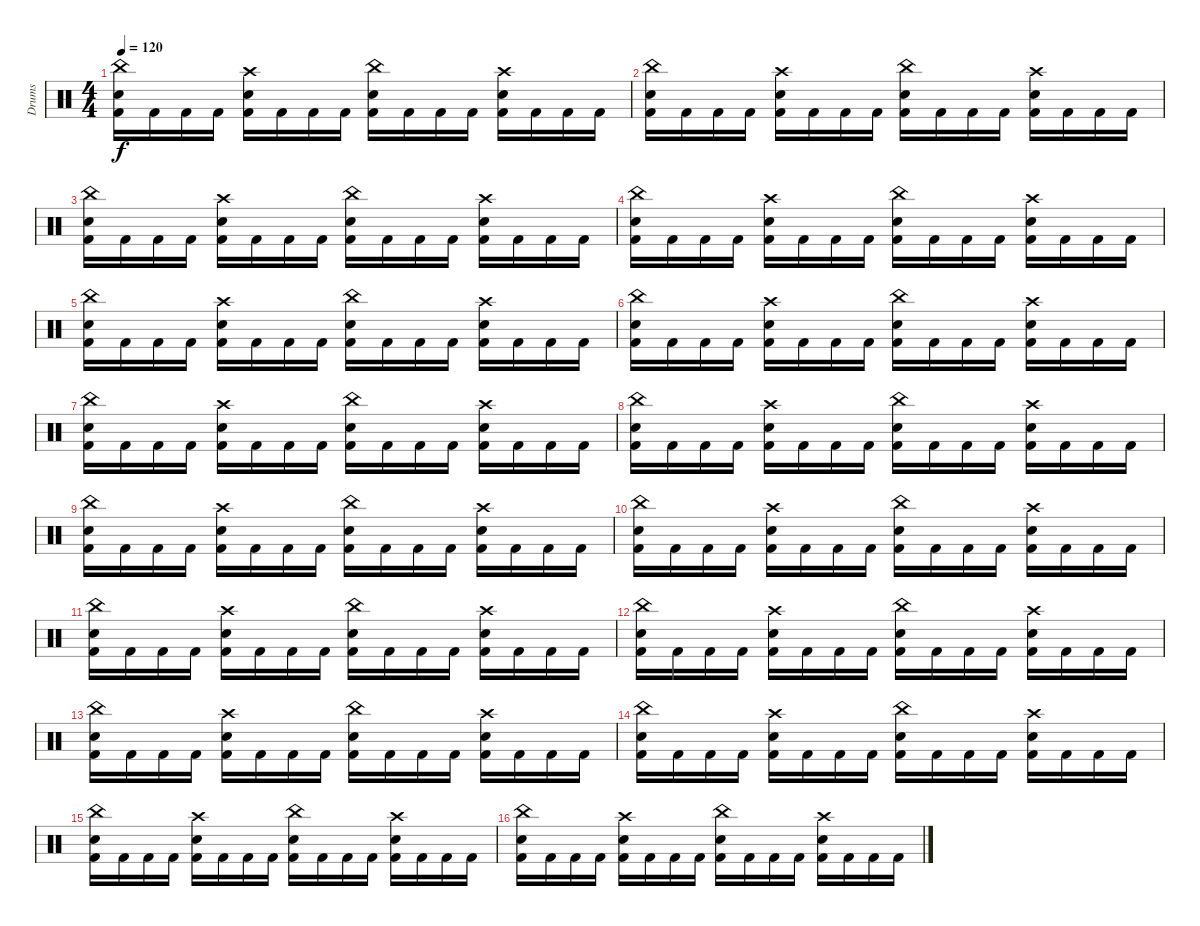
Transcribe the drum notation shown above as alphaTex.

\track ("Drums" "Drums") {instrument percussion}
\staff {score}
\articulation defaults
\ts (4 4)
\tempo 120
\clef neutral
\ks c
("China (hit)" "Electric Snare (hit)" "Kick (hit) 2").16{dy f} "Kick (hit) 2".16 "Kick (hit) 2".16 "Kick (hit) 2".16 ("Crash high (hit)" "Electric Snare (hit)" "Kick (hit) 2").16 "Kick (hit) 2".16 "Kick (hit) 2".16 "Kick (hit) 2".16 ("China (hit)" "Electric Snare (hit)" "Kick (hit) 2").16 "Kick (hit) 2".16 "Kick (hit) 2".16 "Kick (hit) 2".16 ("Crash high (hit)" "Electric Snare (hit)" "Kick (hit) 2").16 "Kick (hit) 2".16 "Kick (hit) 2".16 "Kick (hit) 2".16 |
("China (hit)" "Electric Snare (hit)" "Kick (hit) 2").16 "Kick (hit) 2".16 "Kick (hit) 2".16 "Kick (hit) 2".16 ("Crash high (hit)" "Electric Snare (hit)" "Kick (hit) 2").16 "Kick (hit) 2".16 "Kick (hit) 2".16 "Kick (hit) 2".16 ("China (hit)" "Electric Snare (hit)" "Kick (hit) 2").16 "Kick (hit) 2".16 "Kick (hit) 2".16 "Kick (hit) 2".16 ("Crash high (hit)" "Electric Snare (hit)" "Kick (hit) 2").16 "Kick (hit) 2".16 "Kick (hit) 2".16 "Kick (hit) 2".16 |
("China (hit)" "Electric Snare (hit)" "Kick (hit) 2").16 "Kick (hit) 2".16 "Kick (hit) 2".16 "Kick (hit) 2".16 ("Crash high (hit)" "Electric Snare (hit)" "Kick (hit) 2").16 "Kick (hit) 2".16 "Kick (hit) 2".16 "Kick (hit) 2".16 ("China (hit)" "Electric Snare (hit)" "Kick (hit) 2").16 "Kick (hit) 2".16 "Kick (hit) 2".16 "Kick (hit) 2".16 ("Crash high (hit)" "Electric Snare (hit)" "Kick (hit) 2").16 "Kick (hit) 2".16 "Kick (hit) 2".16 "Kick (hit) 2".16 |
("China (hit)" "Electric Snare (hit)" "Kick (hit) 2").16 "Kick (hit) 2".16 "Kick (hit) 2".16 "Kick (hit) 2".16 ("Crash high (hit)" "Electric Snare (hit)" "Kick (hit) 2").16 "Kick (hit) 2".16 "Kick (hit) 2".16 "Kick (hit) 2".16 ("China (hit)" "Electric Snare (hit)" "Kick (hit) 2").16 "Kick (hit) 2".16 "Kick (hit) 2".16 "Kick (hit) 2".16 ("Crash high (hit)" "Electric Snare (hit)" "Kick (hit) 2").16 "Kick (hit) 2".16 "Kick (hit) 2".16 "Kick (hit) 2".16 |
("China (hit)" "Electric Snare (hit)" "Kick (hit) 2").16 "Kick (hit) 2".16 "Kick (hit) 2".16 "Kick (hit) 2".16 ("Crash high (hit)" "Electric Snare (hit)" "Kick (hit) 2").16 "Kick (hit) 2".16 "Kick (hit) 2".16 "Kick (hit) 2".16 ("China (hit)" "Electric Snare (hit)" "Kick (hit) 2").16 "Kick (hit) 2".16 "Kick (hit) 2".16 "Kick (hit) 2".16 ("Crash high (hit)" "Electric Snare (hit)" "Kick (hit) 2").16 "Kick (hit) 2".16 "Kick (hit) 2".16 "Kick (hit) 2".16 |
("China (hit)" "Electric Snare (hit)" "Kick (hit) 2").16 "Kick (hit) 2".16 "Kick (hit) 2".16 "Kick (hit) 2".16 ("Crash high (hit)" "Electric Snare (hit)" "Kick (hit) 2").16 "Kick (hit) 2".16 "Kick (hit) 2".16 "Kick (hit) 2".16 ("China (hit)" "Electric Snare (hit)" "Kick (hit) 2").16 "Kick (hit) 2".16 "Kick (hit) 2".16 "Kick (hit) 2".16 ("Crash high (hit)" "Electric Snare (hit)" "Kick (hit) 2").16 "Kick (hit) 2".16 "Kick (hit) 2".16 "Kick (hit) 2".16 |
("China (hit)" "Electric Snare (hit)" "Kick (hit) 2").16 "Kick (hit) 2".16 "Kick (hit) 2".16 "Kick (hit) 2".16 ("Crash high (hit)" "Electric Snare (hit)" "Kick (hit) 2").16 "Kick (hit) 2".16 "Kick (hit) 2".16 "Kick (hit) 2".16 ("China (hit)" "Electric Snare (hit)" "Kick (hit) 2").16 "Kick (hit) 2".16 "Kick (hit) 2".16 "Kick (hit) 2".16 ("Crash high (hit)" "Electric Snare (hit)" "Kick (hit) 2").16 "Kick (hit) 2".16 "Kick (hit) 2".16 "Kick (hit) 2".16 |
("China (hit)" "Electric Snare (hit)" "Kick (hit) 2").16 "Kick (hit) 2".16 "Kick (hit) 2".16 "Kick (hit) 2".16 ("Crash high (hit)" "Electric Snare (hit)" "Kick (hit) 2").16 "Kick (hit) 2".16 "Kick (hit) 2".16 "Kick (hit) 2".16 ("China (hit)" "Electric Snare (hit)" "Kick (hit) 2").16 "Kick (hit) 2".16 "Kick (hit) 2".16 "Kick (hit) 2".16 ("Crash high (hit)" "Electric Snare (hit)" "Kick (hit) 2").16 "Kick (hit) 2".16 "Kick (hit) 2".16 "Kick (hit) 2".16 |
("China (hit)" "Electric Snare (hit)" "Kick (hit) 2").16 "Kick (hit) 2".16 "Kick (hit) 2".16 "Kick (hit) 2".16 ("Crash high (hit)" "Electric Snare (hit)" "Kick (hit) 2").16 "Kick (hit) 2".16 "Kick (hit) 2".16 "Kick (hit) 2".16 ("China (hit)" "Electric Snare (hit)" "Kick (hit) 2").16 "Kick (hit) 2".16 "Kick (hit) 2".16 "Kick (hit) 2".16 ("Crash high (hit)" "Electric Snare (hit)" "Kick (hit) 2").16 "Kick (hit) 2".16 "Kick (hit) 2".16 "Kick (hit) 2".16 |
("China (hit)" "Electric Snare (hit)" "Kick (hit) 2").16 "Kick (hit) 2".16 "Kick (hit) 2".16 "Kick (hit) 2".16 ("Crash high (hit)" "Electric Snare (hit)" "Kick (hit) 2").16 "Kick (hit) 2".16 "Kick (hit) 2".16 "Kick (hit) 2".16 ("China (hit)" "Electric Snare (hit)" "Kick (hit) 2").16 "Kick (hit) 2".16 "Kick (hit) 2".16 "Kick (hit) 2".16 ("Crash high (hit)" "Electric Snare (hit)" "Kick (hit) 2").16 "Kick (hit) 2".16 "Kick (hit) 2".16 "Kick (hit) 2".16 |
("China (hit)" "Electric Snare (hit)" "Kick (hit) 2").16 "Kick (hit) 2".16 "Kick (hit) 2".16 "Kick (hit) 2".16 ("Crash high (hit)" "Electric Snare (hit)" "Kick (hit) 2").16 "Kick (hit) 2".16 "Kick (hit) 2".16 "Kick (hit) 2".16 ("China (hit)" "Electric Snare (hit)" "Kick (hit) 2").16 "Kick (hit) 2".16 "Kick (hit) 2".16 "Kick (hit) 2".16 ("Crash high (hit)" "Electric Snare (hit)" "Kick (hit) 2").16 "Kick (hit) 2".16 "Kick (hit) 2".16 "Kick (hit) 2".16 |
("China (hit)" "Electric Snare (hit)" "Kick (hit) 2").16 "Kick (hit) 2".16 "Kick (hit) 2".16 "Kick (hit) 2".16 ("Crash high (hit)" "Electric Snare (hit)" "Kick (hit) 2").16 "Kick (hit) 2".16 "Kick (hit) 2".16 "Kick (hit) 2".16 ("China (hit)" "Electric Snare (hit)" "Kick (hit) 2").16 "Kick (hit) 2".16 "Kick (hit) 2".16 "Kick (hit) 2".16 ("Crash high (hit)" "Electric Snare (hit)" "Kick (hit) 2").16 "Kick (hit) 2".16 "Kick (hit) 2".16 "Kick (hit) 2".16 |
("China (hit)" "Electric Snare (hit)" "Kick (hit) 2").16 "Kick (hit) 2".16 "Kick (hit) 2".16 "Kick (hit) 2".16 ("Crash high (hit)" "Electric Snare (hit)" "Kick (hit) 2").16 "Kick (hit) 2".16 "Kick (hit) 2".16 "Kick (hit) 2".16 ("China (hit)" "Electric Snare (hit)" "Kick (hit) 2").16 "Kick (hit) 2".16 "Kick (hit) 2".16 "Kick (hit) 2".16 ("Crash high (hit)" "Electric Snare (hit)" "Kick (hit) 2").16 "Kick (hit) 2".16 "Kick (hit) 2".16 "Kick (hit) 2".16 |
("China (hit)" "Electric Snare (hit)" "Kick (hit) 2").16 "Kick (hit) 2".16 "Kick (hit) 2".16 "Kick (hit) 2".16 ("Crash high (hit)" "Electric Snare (hit)" "Kick (hit) 2").16 "Kick (hit) 2".16 "Kick (hit) 2".16 "Kick (hit) 2".16 ("China (hit)" "Electric Snare (hit)" "Kick (hit) 2").16 "Kick (hit) 2".16 "Kick (hit) 2".16 "Kick (hit) 2".16 ("Crash high (hit)" "Electric Snare (hit)" "Kick (hit) 2").16 "Kick (hit) 2".16 "Kick (hit) 2".16 "Kick (hit) 2".16 |
("China (hit)" "Electric Snare (hit)" "Kick (hit) 2").16 "Kick (hit) 2".16 "Kick (hit) 2".16 "Kick (hit) 2".16 ("Crash high (hit)" "Electric Snare (hit)" "Kick (hit) 2").16 "Kick (hit) 2".16 "Kick (hit) 2".16 "Kick (hit) 2".16 ("China (hit)" "Electric Snare (hit)" "Kick (hit) 2").16 "Kick (hit) 2".16 "Kick (hit) 2".16 "Kick (hit) 2".16 ("Crash high (hit)" "Electric Snare (hit)" "Kick (hit) 2").16 "Kick (hit) 2".16 "Kick (hit) 2".16 "Kick (hit) 2".16 |
("China (hit)" "Electric Snare (hit)" "Kick (hit) 2").16 "Kick (hit) 2".16 "Kick (hit) 2".16 "Kick (hit) 2".16 ("Crash high (hit)" "Electric Snare (hit)" "Kick (hit) 2").16 "Kick (hit) 2".16 "Kick (hit) 2".16 "Kick (hit) 2".16 ("China (hit)" "Electric Snare (hit)" "Kick (hit) 2").16 "Kick (hit) 2".16 "Kick (hit) 2".16 "Kick (hit) 2".16 ("Crash high (hit)" "Electric Snare (hit)" "Kick (hit) 2").16 "Kick (hit) 2".16 "Kick (hit) 2".16 "Kick (hit) 2".16
